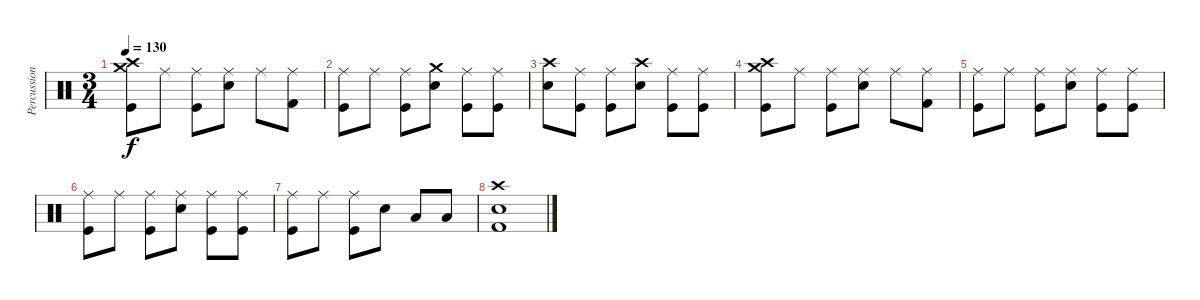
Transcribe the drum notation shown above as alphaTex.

\track ("Percussion" "Percussion") {instrument percussion}
\staff {score}
\articulation defaults
\ts (3 4)
\tempo 130
\clef neutral
\ks c
("Crash medium (hit)" "Crash high (hit)" "Kick (hit)").8{dy f} "Ride (middle)".8 ("Ride (middle)" "Kick (hit)").8 ("Ride (middle)" "Snare (hit) 2").8 "Ride (middle)".8 ("Ride (middle)" "Kick (hit) 2").8 |
("Ride (middle)" "Kick (hit)").8 "Ride (middle)".8 ("Ride (middle)" "Kick (hit)").8 ("Crash medium (hit)" "Snare (hit) 2").8 ("Ride (middle)" "Kick (hit)").8 ("Ride (middle)" "Kick (hit)").8 |
("Crash high (hit)" "Snare (hit) 2").8 ("Ride (middle)" "Kick (hit)").8 ("Ride (middle)" "Kick (hit)").8 ("Crash high (hit)" "Snare (hit) 2").8 ("Ride (middle)" "Kick (hit)").8 ("Ride (middle)" "Kick (hit)").8 |
("Crash medium (hit)" "Crash high (hit)" "Kick (hit)").8 "Ride (middle)".8 ("Ride (middle)" "Kick (hit)").8 ("Ride (middle)" "Snare (hit) 2").8 "Ride (middle)".8 ("Ride (middle)" "Kick (hit) 2").8 |
("Ride (middle)" "Kick (hit)").8 "Ride (middle)".8 ("Ride (middle)" "Kick (hit)").8 ("Ride (middle)" "Snare (hit) 2").8 ("Ride (middle)" "Kick (hit)").8 ("Ride (middle)" "Kick (hit)").8 |
("Ride (middle)" "Kick (hit)").8 "Ride (middle)".8 ("Ride (middle)" "Kick (hit)").8 ("Ride (middle)" "Snare (hit) 2").8 ("Ride (middle)" "Kick (hit)").8 ("Ride (middle)" "Kick (hit)").8 |
("Ride (middle)" "Kick (hit)").8 "Ride (middle)".8 ("Ride (middle)" "Kick (hit)").8 "Snare (hit) 2".8 "Low Tom (hit)".8 "Low Floor Tom (hit)".8 |
("Crash high (hit)" "Electric Snare (hit)" "Kick (hit) 2").1
